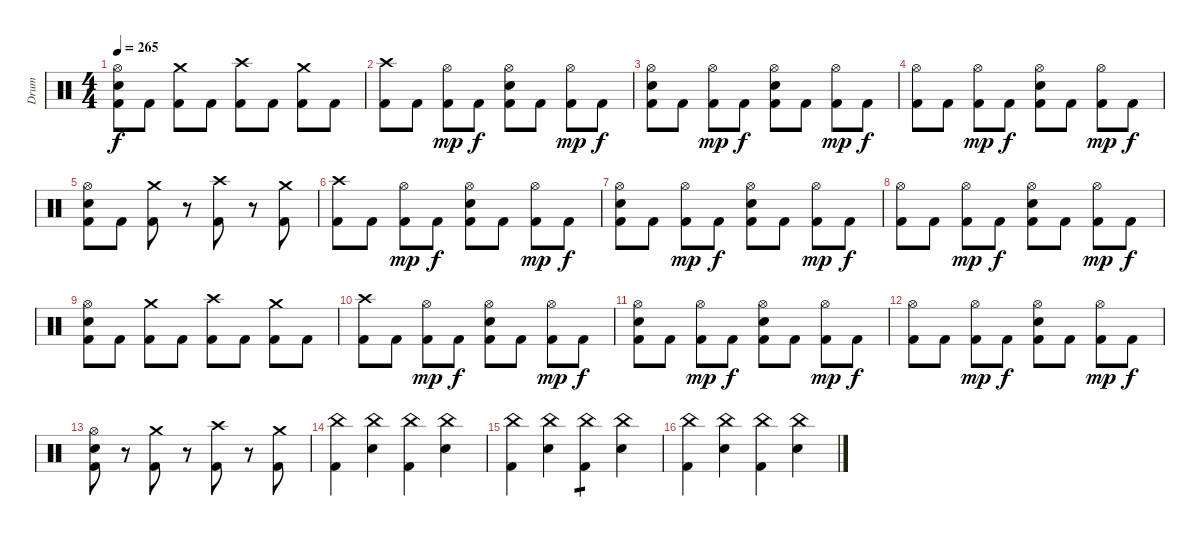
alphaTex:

\track ("Drum" "Drum") {instrument percussion}
\staff {score}
\articulation defaults
\ts (4 4)
\tempo 265
\clef neutral
\ks c
("Hi-Hat (open)" "Snare (hit) 2" "Kick (hit) 2").8{dy f} "Kick (hit) 2".8 ("Crash medium (hit)" "Kick (hit) 2").8 "Kick (hit) 2".8 ("Crash high (hit)" "Kick (hit) 2").8 "Kick (hit) 2".8 ("Crash medium (hit)" "Kick (hit) 2").8 "Kick (hit) 2".8 |
("Crash high (hit)" "Kick (hit) 2").8 "Kick (hit) 2".8 ("Hi-Hat (open)" "Kick (hit) 2").8{dy mp} "Kick (hit) 2".8{dy f} ("Snare (hit) 2" "Hi-Hat (open)" "Kick (hit) 2").8 "Kick (hit) 2".8 ("Hi-Hat (open)" "Kick (hit) 2").8{dy mp} "Kick (hit) 2".8{dy f} |
("Hi-Hat (open)" "Snare (hit) 2" "Kick (hit) 2").8 "Kick (hit) 2".8 ("Hi-Hat (open)" "Kick (hit) 2").8{dy mp} "Kick (hit) 2".8{dy f} ("Snare (hit) 2" "Hi-Hat (open)" "Kick (hit) 2").8 "Kick (hit) 2".8 ("Hi-Hat (open)" "Kick (hit) 2").8{dy mp} "Kick (hit) 2".8{dy f} |
("Hi-Hat (open)" "Kick (hit) 2").8 "Kick (hit) 2".8 ("Hi-Hat (open)" "Kick (hit) 2").8{dy mp} "Kick (hit) 2".8{dy f} ("Snare (hit) 2" "Hi-Hat (open)" "Kick (hit) 2").8 "Kick (hit) 2".8 ("Hi-Hat (open)" "Kick (hit) 2").8{dy mp} "Kick (hit) 2".8{dy f} |
("Hi-Hat (open)" "Snare (hit) 2" "Kick (hit) 2").8 "Kick (hit) 2".8 ("Crash medium (hit)" "Kick (hit) 2").8 r.8 ("Crash high (hit)" "Kick (hit) 2").8 r.8 ("Crash medium (hit)" "Kick (hit) 2").8 |
("Crash high (hit)" "Kick (hit) 2").8 "Kick (hit) 2".8 ("Hi-Hat (open)" "Kick (hit) 2").8{dy mp} "Kick (hit) 2".8{dy f} ("Snare (hit) 2" "Hi-Hat (open)" "Kick (hit) 2").8 "Kick (hit) 2".8 ("Hi-Hat (open)" "Kick (hit) 2").8{dy mp} "Kick (hit) 2".8{dy f} |
("Hi-Hat (open)" "Snare (hit) 2" "Kick (hit) 2").8 "Kick (hit) 2".8 ("Hi-Hat (open)" "Kick (hit) 2").8{dy mp} "Kick (hit) 2".8{dy f} ("Snare (hit) 2" "Hi-Hat (open)" "Kick (hit) 2").8 "Kick (hit) 2".8 ("Hi-Hat (open)" "Kick (hit) 2").8{dy mp} "Kick (hit) 2".8{dy f} |
("Hi-Hat (open)" "Kick (hit) 2").8 "Kick (hit) 2".8 ("Hi-Hat (open)" "Kick (hit) 2").8{dy mp} "Kick (hit) 2".8{dy f} ("Snare (hit) 2" "Hi-Hat (open)" "Kick (hit) 2").8 "Kick (hit) 2".8 ("Hi-Hat (open)" "Kick (hit) 2").8{dy mp} "Kick (hit) 2".8{dy f} |
("Hi-Hat (open)" "Snare (hit) 2" "Kick (hit) 2").8 "Kick (hit) 2".8 ("Crash medium (hit)" "Kick (hit) 2").8 "Kick (hit) 2".8 ("Crash high (hit)" "Kick (hit) 2").8 "Kick (hit) 2".8 ("Crash medium (hit)" "Kick (hit) 2").8 "Kick (hit) 2".8 |
("Crash high (hit)" "Kick (hit) 2").8 "Kick (hit) 2".8 ("Hi-Hat (open)" "Kick (hit) 2").8{dy mp} "Kick (hit) 2".8{dy f} ("Snare (hit) 2" "Hi-Hat (open)" "Kick (hit) 2").8 "Kick (hit) 2".8 ("Hi-Hat (open)" "Kick (hit) 2").8{dy mp} "Kick (hit) 2".8{dy f} |
("Hi-Hat (open)" "Snare (hit) 2" "Kick (hit) 2").8 "Kick (hit) 2".8 ("Hi-Hat (open)" "Kick (hit) 2").8{dy mp} "Kick (hit) 2".8{dy f} ("Snare (hit) 2" "Hi-Hat (open)" "Kick (hit) 2").8 "Kick (hit) 2".8 ("Hi-Hat (open)" "Kick (hit) 2").8{dy mp} "Kick (hit) 2".8{dy f} |
("Hi-Hat (open)" "Kick (hit) 2").8 "Kick (hit) 2".8 ("Hi-Hat (open)" "Kick (hit) 2").8{dy mp} "Kick (hit) 2".8{dy f} ("Snare (hit) 2" "Hi-Hat (open)" "Kick (hit) 2").8 "Kick (hit) 2".8 ("Hi-Hat (open)" "Kick (hit) 2").8{dy mp} "Kick (hit) 2".8{dy f} |
("Hi-Hat (open)" "Snare (hit) 2" "Kick (hit) 2").8 r.8 ("Crash medium (hit)" "Kick (hit) 2").8 r.8 ("Crash high (hit)" "Kick (hit) 2").8 r.8 ("Crash medium (hit)" "Kick (hit) 2").8 |
("China (hit)" "Kick (hit) 2").4 ("China (hit)" "Snare (hit) 2").4 ("China (hit)" "Kick (hit) 2").4 ("China (hit)" "Snare (hit) 2").4 |
("China (hit)" "Kick (hit) 2").4 ("China (hit)" "Snare (hit) 2").4 ("China (hit)" "Kick (hit) 2").4{tp 1} ("China (hit)" "Snare (hit) 2").4 |
("China (hit)" "Kick (hit) 2").4 ("China (hit)" "Snare (hit) 2").4 ("China (hit)" "Kick (hit) 2").4 ("China (hit)" "Snare (hit) 2").4
